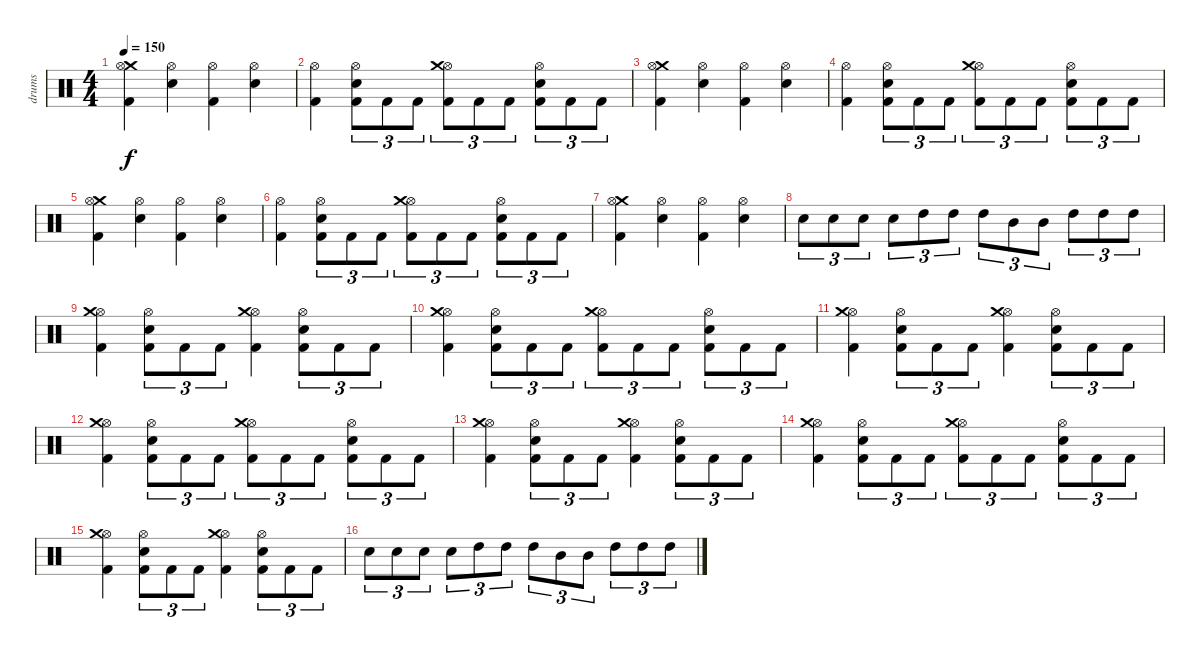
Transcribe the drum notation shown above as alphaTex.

\track ("drums" "drums") {instrument percussion}
\staff {score}
\articulation defaults
\ts (4 4)
\tempo 150
\clef neutral
\ks c
("Crash medium (hit)" "Hi-Hat (open)" "Kick (hit) 2").4{dy f} ("Hi-Hat (open)" "Snare (hit) 2").4 ("Hi-Hat (open)" "Kick (hit) 2").4 ("Hi-Hat (open)" "Snare (hit) 2").4 |
("Hi-Hat (open)" "Kick (hit) 2").4 ("Snare (hit) 2" "Hi-Hat (open)" "Kick (hit) 2").8{tu (3 2)} "Kick (hit) 2".8{tu (3 2)} "Kick (hit) 2".8{tu (3 2)} ("Hi-Hat (open)" "Crash medium (hit)" "Kick (hit) 2").8{tu (3 2)} "Kick (hit) 2".8{tu (3 2)} "Kick (hit) 2".8{tu (3 2)} ("Snare (hit) 2" "Hi-Hat (open)" "Kick (hit) 2").8{tu (3 2)} "Kick (hit) 2".8{tu (3 2)} "Kick (hit) 2".8{tu (3 2)} |
("Crash medium (hit)" "Hi-Hat (open)" "Kick (hit) 2").4 ("Hi-Hat (open)" "Snare (hit) 2").4 ("Hi-Hat (open)" "Kick (hit) 2").4 ("Hi-Hat (open)" "Snare (hit) 2").4 |
("Hi-Hat (open)" "Kick (hit) 2").4 ("Snare (hit) 2" "Hi-Hat (open)" "Kick (hit) 2").8{tu (3 2)} "Kick (hit) 2".8{tu (3 2)} "Kick (hit) 2".8{tu (3 2)} ("Hi-Hat (open)" "Crash medium (hit)" "Kick (hit) 2").8{tu (3 2)} "Kick (hit) 2".8{tu (3 2)} "Kick (hit) 2".8{tu (3 2)} ("Snare (hit) 2" "Hi-Hat (open)" "Kick (hit) 2").8{tu (3 2)} "Kick (hit) 2".8{tu (3 2)} "Kick (hit) 2".8{tu (3 2)} |
("Crash medium (hit)" "Hi-Hat (open)" "Kick (hit) 2").4 ("Hi-Hat (open)" "Snare (hit) 2").4 ("Hi-Hat (open)" "Kick (hit) 2").4 ("Hi-Hat (open)" "Snare (hit) 2").4 |
("Hi-Hat (open)" "Kick (hit) 2").4 ("Snare (hit) 2" "Hi-Hat (open)" "Kick (hit) 2").8{tu (3 2)} "Kick (hit) 2".8{tu (3 2)} "Kick (hit) 2".8{tu (3 2)} ("Hi-Hat (open)" "Crash medium (hit)" "Kick (hit) 2").8{tu (3 2)} "Kick (hit) 2".8{tu (3 2)} "Kick (hit) 2".8{tu (3 2)} ("Snare (hit) 2" "Hi-Hat (open)" "Kick (hit) 2").8{tu (3 2)} "Kick (hit) 2".8{tu (3 2)} "Kick (hit) 2".8{tu (3 2)} |
("Crash medium (hit)" "Hi-Hat (open)" "Kick (hit) 2").4 ("Hi-Hat (open)" "Snare (hit) 2").4 ("Hi-Hat (open)" "Kick (hit) 2").4 ("Hi-Hat (open)" "Snare (hit) 2").4 |
"Electric Snare (hit)".8{tu (3 2)} "Electric Snare (hit)".8{tu (3 2)} "Electric Snare (hit)".8{tu (3 2)} "Electric Snare (hit)".8{tu (3 2)} "High Tom (hit)".8{tu (3 2)} "High Tom (hit)".8{tu (3 2)} "High Tom (hit)".8{tu (3 2)} "Mid Tom (hit)".8{tu (3 2)} "Mid Tom (hit)".8{tu (3 2)} "High Tom (hit)".8{tu (3 2)} "High Tom (hit)".8{tu (3 2)} "High Tom (hit)".8{tu (3 2)} |
("Hi-Hat (open)" "Crash medium (hit)" "Kick (hit) 2").4 ("Snare (hit) 2" "Hi-Hat (open)" "Kick (hit) 2").8{tu (3 2)} "Kick (hit) 2".8{tu (3 2)} "Kick (hit) 2".8{tu (3 2)} ("Hi-Hat (open)" "Crash medium (hit)" "Kick (hit) 2").4 ("Snare (hit) 2" "Hi-Hat (open)" "Kick (hit) 2").8{tu (3 2)} "Kick (hit) 2".8{tu (3 2)} "Kick (hit) 2".8{tu (3 2)} |
("Hi-Hat (open)" "Crash medium (hit)" "Kick (hit) 2").4 ("Snare (hit) 2" "Hi-Hat (open)" "Kick (hit) 2").8{tu (3 2)} "Kick (hit) 2".8{tu (3 2)} "Kick (hit) 2".8{tu (3 2)} ("Hi-Hat (open)" "Crash medium (hit)" "Kick (hit) 2").8{tu (3 2)} "Kick (hit) 2".8{tu (3 2)} "Kick (hit) 2".8{tu (3 2)} ("Snare (hit) 2" "Hi-Hat (open)" "Kick (hit) 2").8{tu (3 2)} "Kick (hit) 2".8{tu (3 2)} "Kick (hit) 2".8{tu (3 2)} |
("Hi-Hat (open)" "Crash medium (hit)" "Kick (hit) 2").4 ("Snare (hit) 2" "Hi-Hat (open)" "Kick (hit) 2").8{tu (3 2)} "Kick (hit) 2".8{tu (3 2)} "Kick (hit) 2".8{tu (3 2)} ("Hi-Hat (open)" "Crash medium (hit)" "Kick (hit) 2").4 ("Snare (hit) 2" "Hi-Hat (open)" "Kick (hit) 2").8{tu (3 2)} "Kick (hit) 2".8{tu (3 2)} "Kick (hit) 2".8{tu (3 2)} |
("Hi-Hat (open)" "Crash medium (hit)" "Kick (hit) 2").4 ("Snare (hit) 2" "Hi-Hat (open)" "Kick (hit) 2").8{tu (3 2)} "Kick (hit) 2".8{tu (3 2)} "Kick (hit) 2".8{tu (3 2)} ("Hi-Hat (open)" "Crash medium (hit)" "Kick (hit) 2").8{tu (3 2)} "Kick (hit) 2".8{tu (3 2)} "Kick (hit) 2".8{tu (3 2)} ("Snare (hit) 2" "Hi-Hat (open)" "Kick (hit) 2").8{tu (3 2)} "Kick (hit) 2".8{tu (3 2)} "Kick (hit) 2".8{tu (3 2)} |
("Hi-Hat (open)" "Crash medium (hit)" "Kick (hit) 2").4 ("Snare (hit) 2" "Hi-Hat (open)" "Kick (hit) 2").8{tu (3 2)} "Kick (hit) 2".8{tu (3 2)} "Kick (hit) 2".8{tu (3 2)} ("Hi-Hat (open)" "Crash medium (hit)" "Kick (hit) 2").4 ("Snare (hit) 2" "Hi-Hat (open)" "Kick (hit) 2").8{tu (3 2)} "Kick (hit) 2".8{tu (3 2)} "Kick (hit) 2".8{tu (3 2)} |
("Hi-Hat (open)" "Crash medium (hit)" "Kick (hit) 2").4 ("Snare (hit) 2" "Hi-Hat (open)" "Kick (hit) 2").8{tu (3 2)} "Kick (hit) 2".8{tu (3 2)} "Kick (hit) 2".8{tu (3 2)} ("Hi-Hat (open)" "Crash medium (hit)" "Kick (hit) 2").8{tu (3 2)} "Kick (hit) 2".8{tu (3 2)} "Kick (hit) 2".8{tu (3 2)} ("Snare (hit) 2" "Hi-Hat (open)" "Kick (hit) 2").8{tu (3 2)} "Kick (hit) 2".8{tu (3 2)} "Kick (hit) 2".8{tu (3 2)} |
("Hi-Hat (open)" "Crash medium (hit)" "Kick (hit) 2").4 ("Snare (hit) 2" "Hi-Hat (open)" "Kick (hit) 2").8{tu (3 2)} "Kick (hit) 2".8{tu (3 2)} "Kick (hit) 2".8{tu (3 2)} ("Hi-Hat (open)" "Crash medium (hit)" "Kick (hit) 2").4 ("Snare (hit) 2" "Hi-Hat (open)" "Kick (hit) 2").8{tu (3 2)} "Kick (hit) 2".8{tu (3 2)} "Kick (hit) 2".8{tu (3 2)} |
"Electric Snare (hit)".8{tu (3 2)} "Electric Snare (hit)".8{tu (3 2)} "Electric Snare (hit)".8{tu (3 2)} "Electric Snare (hit)".8{tu (3 2)} "High Tom (hit)".8{tu (3 2)} "High Tom (hit)".8{tu (3 2)} "High Tom (hit)".8{tu (3 2)} "Mid Tom (hit)".8{tu (3 2)} "Mid Tom (hit)".8{tu (3 2)} "High Tom (hit)".8{tu (3 2)} "High Tom (hit)".8{tu (3 2)} "High Tom (hit)".8{tu (3 2)}
